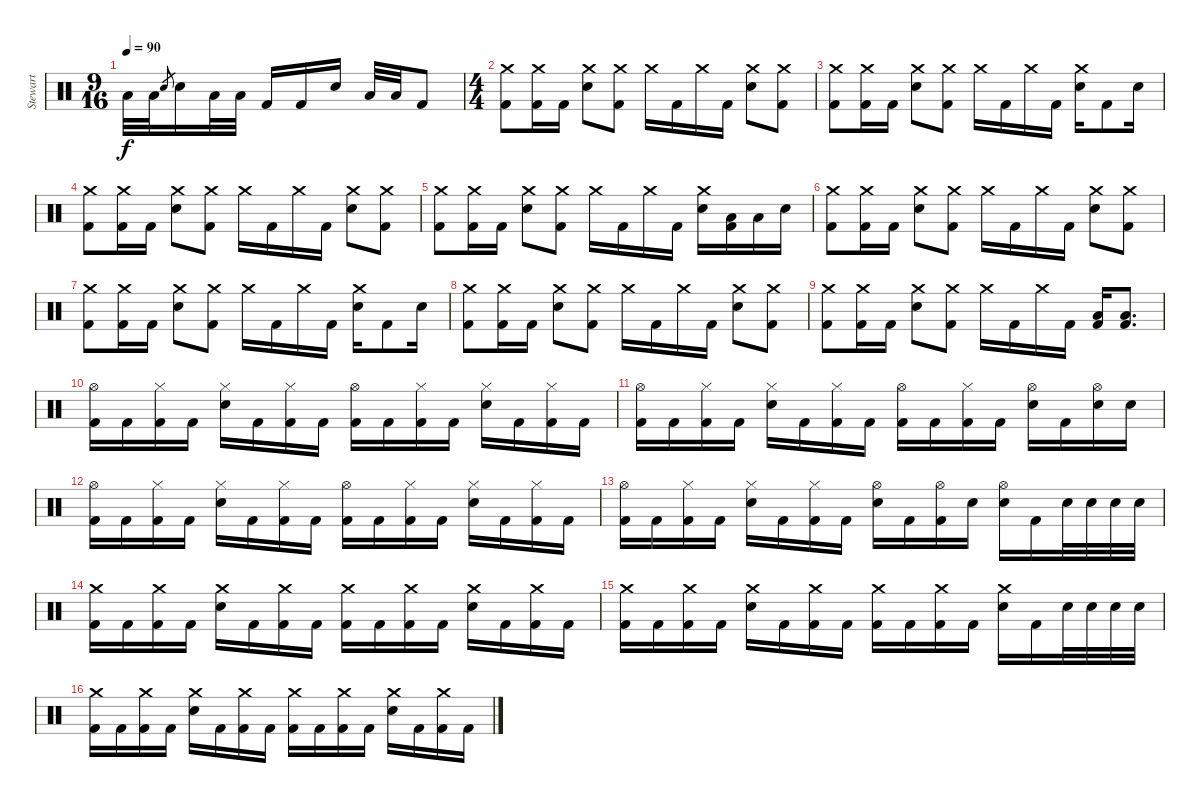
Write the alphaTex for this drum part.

\track ("Stewart" "Stewart") {instrument percussion}
\staff {score}
\articulation defaults
\ts (9 16)
\tempo 90
\clef neutral
\ks c "Low Tom (hit)".32{dy f} "Low Tom (hit)".32 "Electric Snare (hit)".8{gr} "Electric Snare (hit)".16 "Low Tom (hit)".32 "Low Tom (hit)".32 "Kick (hit) 2".16 "Kick (hit) 2".16 "Electric Snare (hit)".16 "Low Tom (hit)".32 "Low Tom (hit)".32 "Kick (hit) 2".8
|
\ts (4 4)
("Crash medium (hit)" "Kick (hit) 2").8 ("Crash medium (hit)" "Kick (hit) 2").16 "Kick (hit) 2".16 ("Crash medium (hit)" "Electric Snare (hit)").8 ("Crash medium (hit)" "Kick (hit) 2").8 "Crash medium (hit)".16 "Kick (hit) 2".16 "Crash medium (hit)".16 "Kick (hit) 2".16 ("Crash medium (hit)" "Electric Snare (hit)").8 ("Crash medium (hit)" "Kick (hit) 2").8 |
("Crash medium (hit)" "Kick (hit) 2").8 ("Crash medium (hit)" "Kick (hit) 2").16 "Kick (hit) 2".16 ("Crash medium (hit)" "Electric Snare (hit)").8 ("Crash medium (hit)" "Kick (hit) 2").8 "Crash medium (hit)".16 "Kick (hit) 2".16 "Crash medium (hit)".16 "Kick (hit) 2".16 ("Crash medium (hit)" "Electric Snare (hit)").16 "Kick (hit) 2".8 "Electric Snare (hit)".16 |
("Crash medium (hit)" "Kick (hit) 2").8 ("Crash medium (hit)" "Kick (hit) 2").16 "Kick (hit) 2".16 ("Crash medium (hit)" "Electric Snare (hit)").8 ("Crash medium (hit)" "Kick (hit) 2").8 "Crash medium (hit)".16 "Kick (hit) 2".16 "Crash medium (hit)".16 "Kick (hit) 2".16 ("Crash medium (hit)" "Electric Snare (hit)").8 ("Crash medium (hit)" "Kick (hit) 2").8 |
("Crash medium (hit)" "Kick (hit) 2").8 ("Crash medium (hit)" "Kick (hit) 2").16 "Kick (hit) 2".16 ("Crash medium (hit)" "Electric Snare (hit)").8 ("Crash medium (hit)" "Kick (hit) 2").8 "Crash medium (hit)".16 "Kick (hit) 2".16 "Crash medium (hit)".16 "Kick (hit) 2".16 ("Crash medium (hit)" "Electric Snare (hit)").16 ("Low Tom (hit)" "Kick (hit) 2").16 "Low Tom (hit)".16 "Electric Snare (hit)".16 |
("Crash medium (hit)" "Kick (hit) 2").8 ("Crash medium (hit)" "Kick (hit) 2").16 "Kick (hit) 2".16 ("Crash medium (hit)" "Electric Snare (hit)").8 ("Crash medium (hit)" "Kick (hit) 2").8 "Crash medium (hit)".16 "Kick (hit) 2".16 "Crash medium (hit)".16 "Kick (hit) 2".16 ("Crash medium (hit)" "Electric Snare (hit)").8 ("Crash medium (hit)" "Kick (hit) 2").8 |
("Crash medium (hit)" "Kick (hit) 2").8 ("Crash medium (hit)" "Kick (hit) 2").16 "Kick (hit) 2".16 ("Crash medium (hit)" "Electric Snare (hit)").8 ("Crash medium (hit)" "Kick (hit) 2").8 "Crash medium (hit)".16 "Kick (hit) 2".16 "Crash medium (hit)".16 "Kick (hit) 2".16 ("Crash medium (hit)" "Electric Snare (hit)").16 "Kick (hit) 2".8 "Electric Snare (hit)".16 |
("Crash medium (hit)" "Kick (hit) 2").8 ("Crash medium (hit)" "Kick (hit) 2").16 "Kick (hit) 2".16 ("Crash medium (hit)" "Electric Snare (hit)").8 ("Crash medium (hit)" "Kick (hit) 2").8 "Crash medium (hit)".16 "Kick (hit) 2".16 "Crash medium (hit)".16 "Kick (hit) 2".16 ("Crash medium (hit)" "Electric Snare (hit)").8 ("Crash medium (hit)" "Kick (hit) 2").8 |
("Crash medium (hit)" "Kick (hit) 2").8 ("Crash medium (hit)" "Kick (hit) 2").16 "Kick (hit) 2".16 ("Crash medium (hit)" "Electric Snare (hit)").8 ("Crash medium (hit)" "Kick (hit) 2").8 "Crash medium (hit)".16 "Kick (hit) 2".16 "Crash medium (hit)".16 "Kick (hit) 2".16 ("Low Tom (hit)" "Kick (hit) 2").16 ("Low Tom (hit)" "Kick (hit) 2").8{d} |
("Hi-Hat (open)" "Kick (hit) 2").16 "Kick (hit) 2".16 ("Hi-Hat (closed)" "Kick (hit) 2").16 "Kick (hit) 2".16 ("Hi-Hat (closed)" "Electric Snare (hit)").16 "Kick (hit) 2".16 ("Hi-Hat (closed)" "Kick (hit) 2").16 "Kick (hit) 2".16 ("Hi-Hat (open)" "Kick (hit) 2").16 "Kick (hit) 2".16 ("Hi-Hat (closed)" "Kick (hit) 2").16 "Kick (hit) 2".16 ("Hi-Hat (closed)" "Electric Snare (hit)").16 "Kick (hit) 2".16 ("Hi-Hat (closed)" "Kick (hit) 2").16 "Kick (hit) 2".16 |
("Hi-Hat (open)" "Kick (hit) 2").16 "Kick (hit) 2".16 ("Hi-Hat (closed)" "Kick (hit) 2").16 "Kick (hit) 2".16 ("Hi-Hat (closed)" "Electric Snare (hit)").16 "Kick (hit) 2".16 ("Hi-Hat (closed)" "Kick (hit) 2").16 "Kick (hit) 2".16 ("Hi-Hat (open)" "Kick (hit) 2").16 "Kick (hit) 2".16 ("Hi-Hat (closed)" "Kick (hit) 2").16 "Kick (hit) 2".16 ("Hi-Hat (open)" "Electric Snare (hit)").16 "Kick (hit) 2".16 ("Hi-Hat (open)" "Electric Snare (hit)").16 "Electric Snare (hit)".16 |
("Hi-Hat (open)" "Kick (hit) 2").16 "Kick (hit) 2".16 ("Hi-Hat (closed)" "Kick (hit) 2").16 "Kick (hit) 2".16 ("Hi-Hat (closed)" "Electric Snare (hit)").16 "Kick (hit) 2".16 ("Hi-Hat (closed)" "Kick (hit) 2").16 "Kick (hit) 2".16 ("Hi-Hat (open)" "Kick (hit) 2").16 "Kick (hit) 2".16 ("Hi-Hat (closed)" "Kick (hit) 2").16 "Kick (hit) 2".16 ("Hi-Hat (closed)" "Electric Snare (hit)").16 "Kick (hit) 2".16 ("Hi-Hat (closed)" "Kick (hit) 2").16 "Kick (hit) 2".16 |
("Hi-Hat (open)" "Kick (hit) 2").16 "Kick (hit) 2".16 ("Hi-Hat (closed)" "Kick (hit) 2").16 "Kick (hit) 2".16 ("Hi-Hat (closed)" "Electric Snare (hit)").16 "Kick (hit) 2".16 ("Hi-Hat (closed)" "Kick (hit) 2").16 "Kick (hit) 2".16 ("Hi-Hat (open)" "Electric Snare (hit)").16 "Kick (hit) 2".16 ("Hi-Hat (open)" "Kick (hit) 2").16 "Electric Snare (hit)".16 ("Hi-Hat (open)" "Electric Snare (hit)").16 "Kick (hit) 2".16 "Electric Snare (hit)".32 "Electric Snare (hit)".32 "Electric Snare (hit)".32 "Electric Snare (hit)".32 |
("Crash medium (hit)" "Kick (hit) 2").16 "Kick (hit) 2".16 ("Crash medium (hit)" "Kick (hit) 2").16 "Kick (hit) 2".16 ("Crash medium (hit)" "Electric Snare (hit)").16 "Kick (hit) 2".16 ("Crash medium (hit)" "Kick (hit) 2").16 "Kick (hit) 2".16 ("Crash medium (hit)" "Kick (hit) 2").16 "Kick (hit) 2".16 ("Crash medium (hit)" "Kick (hit) 2").16 "Kick (hit) 2".16 ("Crash medium (hit)" "Electric Snare (hit)").16 "Kick (hit) 2".16 ("Crash medium (hit)" "Kick (hit) 2").16 "Kick (hit) 2".16 |
("Crash medium (hit)" "Kick (hit) 2").16 "Kick (hit) 2".16 ("Crash medium (hit)" "Kick (hit) 2").16 "Kick (hit) 2".16 ("Crash medium (hit)" "Electric Snare (hit)").16 "Kick (hit) 2".16 ("Crash medium (hit)" "Kick (hit) 2").16 "Kick (hit) 2".16 ("Crash medium (hit)" "Kick (hit) 2").16 "Kick (hit) 2".16 ("Crash medium (hit)" "Kick (hit) 2").16 "Kick (hit) 2".16 ("Crash medium (hit)" "Electric Snare (hit)").16 "Kick (hit) 2".16 "Electric Snare (hit)".32 "Electric Snare (hit)".32 "Electric Snare (hit)".32 "Electric Snare (hit)".32 |
("Crash medium (hit)" "Kick (hit) 2").16 "Kick (hit) 2".16 ("Crash medium (hit)" "Kick (hit) 2").16 "Kick (hit) 2".16 ("Crash medium (hit)" "Electric Snare (hit)").16 "Kick (hit) 2".16 ("Crash medium (hit)" "Kick (hit) 2").16 "Kick (hit) 2".16 ("Crash medium (hit)" "Kick (hit) 2").16 "Kick (hit) 2".16 ("Crash medium (hit)" "Kick (hit) 2").16 "Kick (hit) 2".16 ("Crash medium (hit)" "Electric Snare (hit)").16 "Kick (hit) 2".16 ("Crash medium (hit)" "Kick (hit) 2").16 "Kick (hit) 2".16
